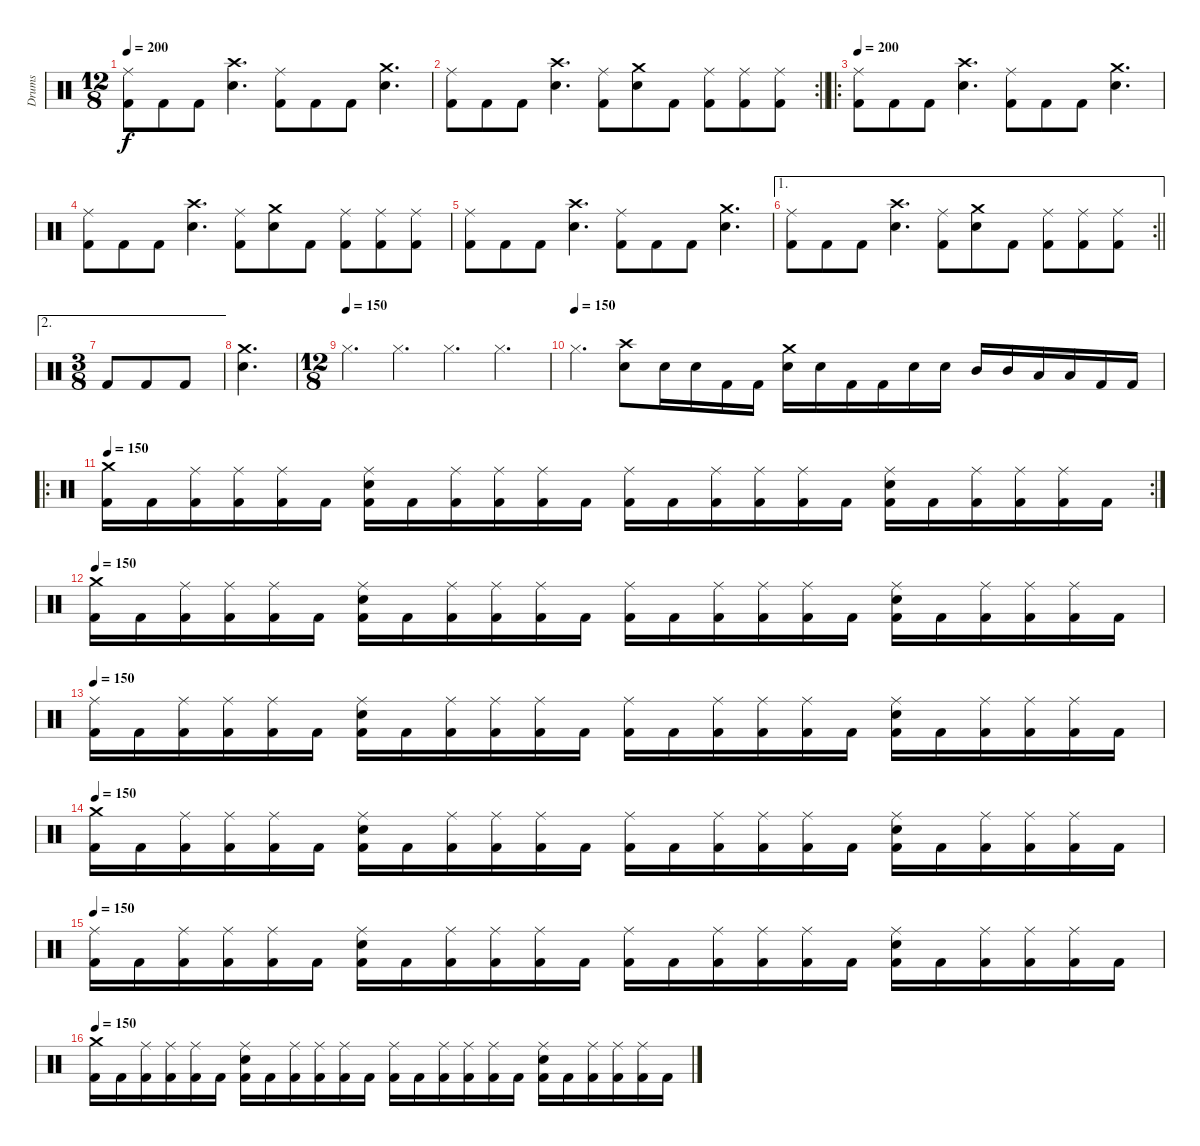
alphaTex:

\track ("Drums" "Drums") {instrument percussion}
\staff {score}
\articulation defaults
\ts (12 8)
\tempo 200
\clef neutral
\ks c
("Ride (middle)" "Kick (hit) 2").8{dy f} "Kick (hit) 2".8 "Kick (hit) 2".8 ("Crash high (hit)" "Electric Snare (hit)").4{d} ("Ride (middle)" "Kick (hit) 2").8 "Kick (hit) 2".8 "Kick (hit) 2".8 ("Crash medium (hit)" "Electric Snare (hit)").4{d} |
\rc 2
\barLineRight lightlight
("Ride (middle)" "Kick (hit) 2").8 "Kick (hit) 2".8 "Kick (hit) 2".8 ("Crash high (hit)" "Electric Snare (hit)").4{d} ("Ride (middle)" "Kick (hit) 2").8 ("Crash medium (hit)" "Electric Snare (hit)").8 "Kick (hit) 2".8 ("Ride (middle)" "Kick (hit) 2").8 ("Ride (middle)" "Kick (hit) 2").8 ("Ride (middle)" "Kick (hit) 2").8 |
\ro
\tempo 200
("Ride (middle)" "Kick (hit) 2").8 "Kick (hit) 2".8 "Kick (hit) 2".8 ("Crash high (hit)" "Electric Snare (hit)").4{d} ("Ride (middle)" "Kick (hit) 2").8 "Kick (hit) 2".8 "Kick (hit) 2".8 ("Crash medium (hit)" "Electric Snare (hit)").4{d} |
("Ride (middle)" "Kick (hit) 2").8 "Kick (hit) 2".8 "Kick (hit) 2".8 ("Crash high (hit)" "Electric Snare (hit)").4{d} ("Ride (middle)" "Kick (hit) 2").8 ("Crash medium (hit)" "Electric Snare (hit)").8 "Kick (hit) 2".8 ("Ride (middle)" "Kick (hit) 2").8 ("Ride (middle)" "Kick (hit) 2").8 ("Ride (middle)" "Kick (hit) 2").8 |
("Ride (middle)" "Kick (hit) 2").8 "Kick (hit) 2".8 "Kick (hit) 2".8 ("Crash high (hit)" "Electric Snare (hit)").4{d} ("Ride (middle)" "Kick (hit) 2").8 "Kick (hit) 2".8 "Kick (hit) 2".8 ("Crash medium (hit)" "Electric Snare (hit)").4{d} |
\ae 1
\rc 2
\barLineRight lightlight
("Ride (middle)" "Kick (hit) 2").8 "Kick (hit) 2".8 "Kick (hit) 2".8 ("Crash high (hit)" "Electric Snare (hit)").4{d} ("Ride (middle)" "Kick (hit) 2").8 ("Crash medium (hit)" "Electric Snare (hit)").8 "Kick (hit) 2".8 ("Ride (middle)" "Kick (hit) 2").8 ("Ride (middle)" "Kick (hit) 2").8 ("Ride (middle)" "Kick (hit) 2").8 |
\ae 2
\ts (3 8)
"Kick (hit) 2".8 "Kick (hit) 2".8 "Kick (hit) 2".8 |
("Crash medium (hit)" "Electric Snare (hit)").4{d} |
\ts (12 8)
\tempo (150)
"Hi-Hat (closed)".4{d} "Hi-Hat (closed)".4{d} "Hi-Hat (closed)".4{d} "Hi-Hat (closed)".4{d} |
\tempo (150)
"Hi-Hat (closed)".4{d} ("Crash high (hit)" "Electric Snare (hit)").8 "Electric Snare (hit)".16 "Electric Snare (hit)".16 "Kick (hit) 2".16 "Kick (hit) 2".16 ("Crash medium (hit)" "Electric Snare (hit)").16 "Electric Snare (hit)".16 "Kick (hit) 2".16 "Kick (hit) 2".16 "Electric Snare (hit)".16 "Electric Snare (hit)".16 "Mid Tom (hit)".16 "Mid Tom (hit)".16 "Low Tom (hit)".16 "Low Tom (hit)".16 "Kick (hit) 2".16 "Kick (hit) 2".16 |
\ro
\rc 2
\tempo 150
("Crash medium (hit)" "Kick (hit) 2").16 "Kick (hit) 2".16 ("Ride (middle)" "Kick (hit) 2").16 ("Ride (middle)" "Kick (hit) 2").16 ("Ride (middle)" "Kick (hit) 2").16 "Kick (hit) 2".16 ("Ride (middle)" "Electric Snare (hit)" "Kick (hit) 2").16 "Kick (hit) 2".16 ("Ride (middle)" "Kick (hit) 2").16 ("Ride (middle)" "Kick (hit) 2").16 ("Ride (middle)" "Kick (hit) 2").16 "Kick (hit) 2".16 ("Ride (middle)" "Kick (hit) 2").16 "Kick (hit) 2".16 ("Ride (middle)" "Kick (hit) 2").16 ("Ride (middle)" "Kick (hit) 2").16 ("Ride (middle)" "Kick (hit) 2").16 "Kick (hit) 2".16 ("Ride (middle)" "Electric Snare (hit)" "Kick (hit) 2").16 "Kick (hit) 2".16 ("Ride (middle)" "Kick (hit) 2").16 ("Ride (middle)" "Kick (hit) 2").16 ("Ride (middle)" "Kick (hit) 2").16 "Kick (hit) 2".16 |
\tempo 150
("Crash medium (hit)" "Kick (hit) 2").16 "Kick (hit) 2".16 ("Ride (middle)" "Kick (hit) 2").16 ("Ride (middle)" "Kick (hit) 2").16 ("Ride (middle)" "Kick (hit) 2").16 "Kick (hit) 2".16 ("Ride (middle)" "Electric Snare (hit)" "Kick (hit) 2").16 "Kick (hit) 2".16 ("Ride (middle)" "Kick (hit) 2").16 ("Ride (middle)" "Kick (hit) 2").16 ("Ride (middle)" "Kick (hit) 2").16 "Kick (hit) 2".16 ("Ride (middle)" "Kick (hit) 2").16 "Kick (hit) 2".16 ("Ride (middle)" "Kick (hit) 2").16 ("Ride (middle)" "Kick (hit) 2").16 ("Ride (middle)" "Kick (hit) 2").16 "Kick (hit) 2".16 ("Ride (middle)" "Electric Snare (hit)" "Kick (hit) 2").16 "Kick (hit) 2".16 ("Ride (middle)" "Kick (hit) 2").16 ("Ride (middle)" "Kick (hit) 2").16 ("Ride (middle)" "Kick (hit) 2").16 "Kick (hit) 2".16 |
\tempo 150
("Ride (middle)" "Kick (hit) 2").16 "Kick (hit) 2".16 ("Ride (middle)" "Kick (hit) 2").16 ("Ride (middle)" "Kick (hit) 2").16 ("Ride (middle)" "Kick (hit) 2").16 "Kick (hit) 2".16 ("Ride (middle)" "Electric Snare (hit)" "Kick (hit) 2").16 "Kick (hit) 2".16 ("Ride (middle)" "Kick (hit) 2").16 ("Ride (middle)" "Kick (hit) 2").16 ("Ride (middle)" "Kick (hit) 2").16 "Kick (hit) 2".16 ("Ride (middle)" "Kick (hit) 2").16 "Kick (hit) 2".16 ("Ride (middle)" "Kick (hit) 2").16 ("Ride (middle)" "Kick (hit) 2").16 ("Ride (middle)" "Kick (hit) 2").16 "Kick (hit) 2".16 ("Ride (middle)" "Electric Snare (hit)" "Kick (hit) 2").16 "Kick (hit) 2".16 ("Ride (middle)" "Kick (hit) 2").16 ("Ride (middle)" "Kick (hit) 2").16 ("Ride (middle)" "Kick (hit) 2").16 "Kick (hit) 2".16 |
\tempo 150
("Crash medium (hit)" "Kick (hit) 2").16 "Kick (hit) 2".16 ("Ride (middle)" "Kick (hit) 2").16 ("Ride (middle)" "Kick (hit) 2").16 ("Ride (middle)" "Kick (hit) 2").16 "Kick (hit) 2".16 ("Ride (middle)" "Electric Snare (hit)" "Kick (hit) 2").16 "Kick (hit) 2".16 ("Ride (middle)" "Kick (hit) 2").16 ("Ride (middle)" "Kick (hit) 2").16 ("Ride (middle)" "Kick (hit) 2").16 "Kick (hit) 2".16 ("Ride (middle)" "Kick (hit) 2").16 "Kick (hit) 2".16 ("Ride (middle)" "Kick (hit) 2").16 ("Ride (middle)" "Kick (hit) 2").16 ("Ride (middle)" "Kick (hit) 2").16 "Kick (hit) 2".16 ("Ride (middle)" "Electric Snare (hit)" "Kick (hit) 2").16 "Kick (hit) 2".16 ("Ride (middle)" "Kick (hit) 2").16 ("Ride (middle)" "Kick (hit) 2").16 ("Ride (middle)" "Kick (hit) 2").16 "Kick (hit) 2".16 |
\tempo 150
("Ride (middle)" "Kick (hit) 2").16 "Kick (hit) 2".16 ("Ride (middle)" "Kick (hit) 2").16 ("Ride (middle)" "Kick (hit) 2").16 ("Ride (middle)" "Kick (hit) 2").16 "Kick (hit) 2".16 ("Ride (middle)" "Electric Snare (hit)" "Kick (hit) 2").16 "Kick (hit) 2".16 ("Ride (middle)" "Kick (hit) 2").16 ("Ride (middle)" "Kick (hit) 2").16 ("Ride (middle)" "Kick (hit) 2").16 "Kick (hit) 2".16 ("Ride (middle)" "Kick (hit) 2").16 "Kick (hit) 2".16 ("Ride (middle)" "Kick (hit) 2").16 ("Ride (middle)" "Kick (hit) 2").16 ("Ride (middle)" "Kick (hit) 2").16 "Kick (hit) 2".16 ("Ride (middle)" "Electric Snare (hit)" "Kick (hit) 2").16 "Kick (hit) 2".16 ("Ride (middle)" "Kick (hit) 2").16 ("Ride (middle)" "Kick (hit) 2").16 ("Ride (middle)" "Kick (hit) 2").16 "Kick (hit) 2".16 |
\tempo 150
("Crash medium (hit)" "Kick (hit) 2").16 "Kick (hit) 2".16 ("Ride (middle)" "Kick (hit) 2").16 ("Ride (middle)" "Kick (hit) 2").16 ("Ride (middle)" "Kick (hit) 2").16 "Kick (hit) 2".16 ("Ride (middle)" "Electric Snare (hit)" "Kick (hit) 2").16 "Kick (hit) 2".16 ("Ride (middle)" "Kick (hit) 2").16 ("Ride (middle)" "Kick (hit) 2").16 ("Ride (middle)" "Kick (hit) 2").16 "Kick (hit) 2".16 ("Ride (middle)" "Kick (hit) 2").16 "Kick (hit) 2".16 ("Ride (middle)" "Kick (hit) 2").16 ("Ride (middle)" "Kick (hit) 2").16 ("Ride (middle)" "Kick (hit) 2").16 "Kick (hit) 2".16 ("Ride (middle)" "Electric Snare (hit)" "Kick (hit) 2").16 "Kick (hit) 2".16 ("Ride (middle)" "Kick (hit) 2").16 ("Ride (middle)" "Kick (hit) 2").16 ("Ride (middle)" "Kick (hit) 2").16 "Kick (hit) 2".16
